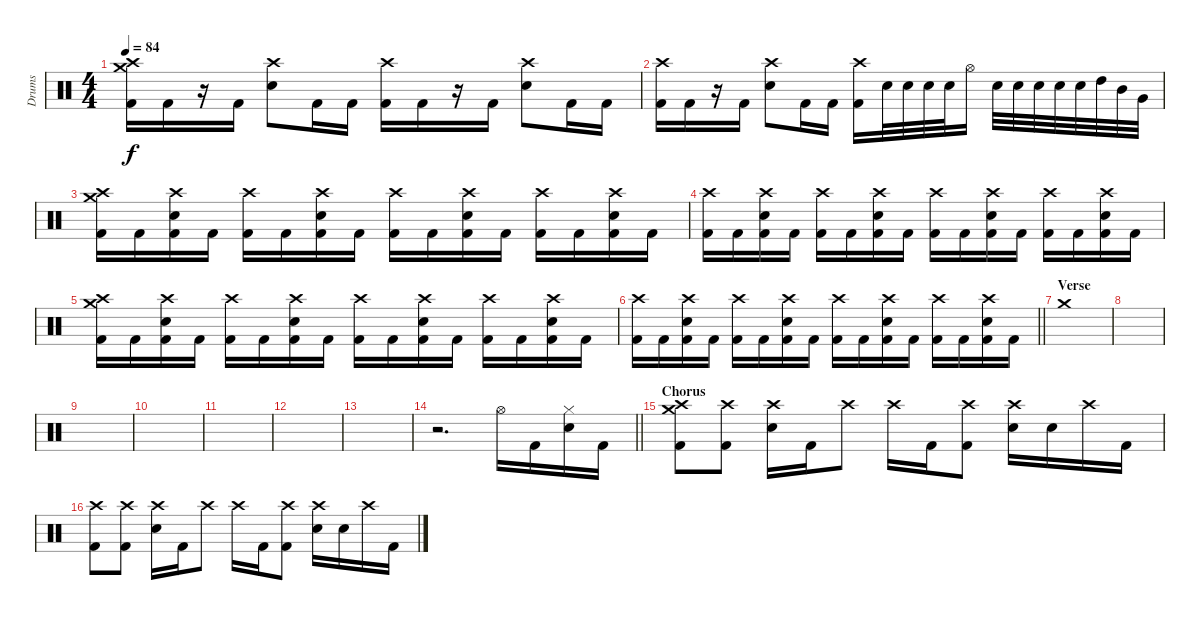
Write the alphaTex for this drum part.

\track ("Drums" "Drums") {instrument percussion}
\staff {score}
\articulation defaults
\ts (4 4)
\tempo 84
\clef neutral
\ks c
("Crash medium (hit)" "Crash high (hit)" "Kick (hit) 2").16{dy f} "Kick (hit) 2".16 r.16 "Kick (hit) 2".16 ("Crash high (hit)" "Electric Snare (hit)").8 "Kick (hit) 2".16 "Kick (hit) 2".16 ("Crash high (hit)" "Kick (hit) 2").16 "Kick (hit) 2".16 r.16 "Kick (hit) 2".16 ("Crash high (hit)" "Electric Snare (hit)").8 "Kick (hit) 2".16 "Kick (hit) 2".16 |
("Crash high (hit)" "Kick (hit) 2").16 "Kick (hit) 2".16 r.16 "Kick (hit) 2".16 ("Crash high (hit)" "Electric Snare (hit)").8 "Kick (hit) 2".16 "Kick (hit) 2".16 ("Crash high (hit)" "Kick (hit) 2").16 "Electric Snare (hit)".32 "Electric Snare (hit)".32 "Electric Snare (hit)".32 "Electric Snare (hit)".32 "Hi-Hat (open)".16 "Electric Snare (hit)".32 "Electric Snare (hit)".32 "Electric Snare (hit)".32 "Electric Snare (hit)".32 "Electric Snare (hit)".32 "High Tom (hit)".32 "Mid Tom (hit)".32 "Very Low Tom (hit)".32 |
("Crash medium (hit)" "Crash high (hit)" "Kick (hit) 2").16 "Kick (hit) 2".16 ("Crash high (hit)" "Electric Snare (hit)" "Kick (hit) 2").16 "Kick (hit) 2".16 ("Crash high (hit)" "Kick (hit) 2").16 "Kick (hit) 2".16 ("Crash high (hit)" "Electric Snare (hit)" "Kick (hit) 2").16 "Kick (hit) 2".16 ("Crash high (hit)" "Kick (hit) 2").16 "Kick (hit) 2".16 ("Crash high (hit)" "Electric Snare (hit)" "Kick (hit) 2").16 "Kick (hit) 2".16 ("Crash high (hit)" "Kick (hit) 2").16 "Kick (hit) 2".16 ("Crash high (hit)" "Electric Snare (hit)" "Kick (hit) 2").16 "Kick (hit) 2".16 |
("Crash high (hit)" "Kick (hit) 2").16 "Kick (hit) 2".16 ("Crash high (hit)" "Electric Snare (hit)" "Kick (hit) 2").16 "Kick (hit) 2".16 ("Crash high (hit)" "Kick (hit) 2").16 "Kick (hit) 2".16 ("Crash high (hit)" "Electric Snare (hit)" "Kick (hit) 2").16 "Kick (hit) 2".16 ("Crash high (hit)" "Kick (hit) 2").16 "Kick (hit) 2".16 ("Crash high (hit)" "Electric Snare (hit)" "Kick (hit) 2").16 "Kick (hit) 2".16 ("Crash high (hit)" "Kick (hit) 2").16 "Kick (hit) 2".16 ("Crash high (hit)" "Electric Snare (hit)" "Kick (hit) 2").16 "Kick (hit) 2".16 |
("Crash medium (hit)" "Crash high (hit)" "Kick (hit) 2").16 "Kick (hit) 2".16 ("Crash high (hit)" "Electric Snare (hit)" "Kick (hit) 2").16 "Kick (hit) 2".16 ("Crash high (hit)" "Kick (hit) 2").16 "Kick (hit) 2".16 ("Crash high (hit)" "Electric Snare (hit)" "Kick (hit) 2").16 "Kick (hit) 2".16 ("Crash high (hit)" "Kick (hit) 2").16 "Kick (hit) 2".16 ("Crash high (hit)" "Electric Snare (hit)" "Kick (hit) 2").16 "Kick (hit) 2".16 ("Crash high (hit)" "Kick (hit) 2").16 "Kick (hit) 2".16 ("Crash high (hit)" "Electric Snare (hit)" "Kick (hit) 2").16 "Kick (hit) 2".16 |
\barLineRight lightlight
("Crash high (hit)" "Kick (hit) 2").16 "Kick (hit) 2".16 ("Crash high (hit)" "Electric Snare (hit)" "Kick (hit) 2").16 "Kick (hit) 2".16 ("Crash high (hit)" "Kick (hit) 2").16 "Kick (hit) 2".16 ("Crash high (hit)" "Electric Snare (hit)" "Kick (hit) 2").16 "Kick (hit) 2".16 ("Crash high (hit)" "Kick (hit) 2").16 "Kick (hit) 2".16 ("Crash high (hit)" "Electric Snare (hit)" "Kick (hit) 2").16 "Kick (hit) 2".16 ("Crash high (hit)" "Kick (hit) 2").16 "Kick (hit) 2".16 ("Crash high (hit)" "Electric Snare (hit)" "Kick (hit) 2").16 "Kick (hit) 2".16 |
\section ("" "Verse")
"Crash medium (hit)".1 |
|
|
|
|
|
|
\barLineRight lightlight
r.2{d} "Hi-Hat (open)".16 "Kick (hit) 2".16 ("Hi-Hat (closed)" "Electric Snare (hit)").16 "Kick (hit) 2".16 |
\section ("" "Chorus")
("Crash medium (hit)" "Crash high (hit)" "Kick (hit) 2").8 ("Crash high (hit)" "Kick (hit) 2").8 ("Crash high (hit)" "Electric Snare (hit)").16 "Kick (hit) 2".16 "Crash high (hit)".8 "Crash high (hit)".16 "Kick (hit) 2".16 ("Crash high (hit)" "Kick (hit) 2").8 ("Crash high (hit)" "Electric Snare (hit)").16 "Electric Snare (hit)".16 "Crash high (hit)".16 "Kick (hit) 2".16 |
("Crash high (hit)" "Kick (hit) 2").8 ("Crash high (hit)" "Kick (hit) 2").8 ("Crash high (hit)" "Electric Snare (hit)").16 "Kick (hit) 2".16 "Crash high (hit)".8 "Crash high (hit)".16 "Kick (hit) 2".16 ("Crash high (hit)" "Kick (hit) 2").8 ("Crash high (hit)" "Electric Snare (hit)").16 "Electric Snare (hit)".16 "Crash high (hit)".16 "Kick (hit) 2".16
